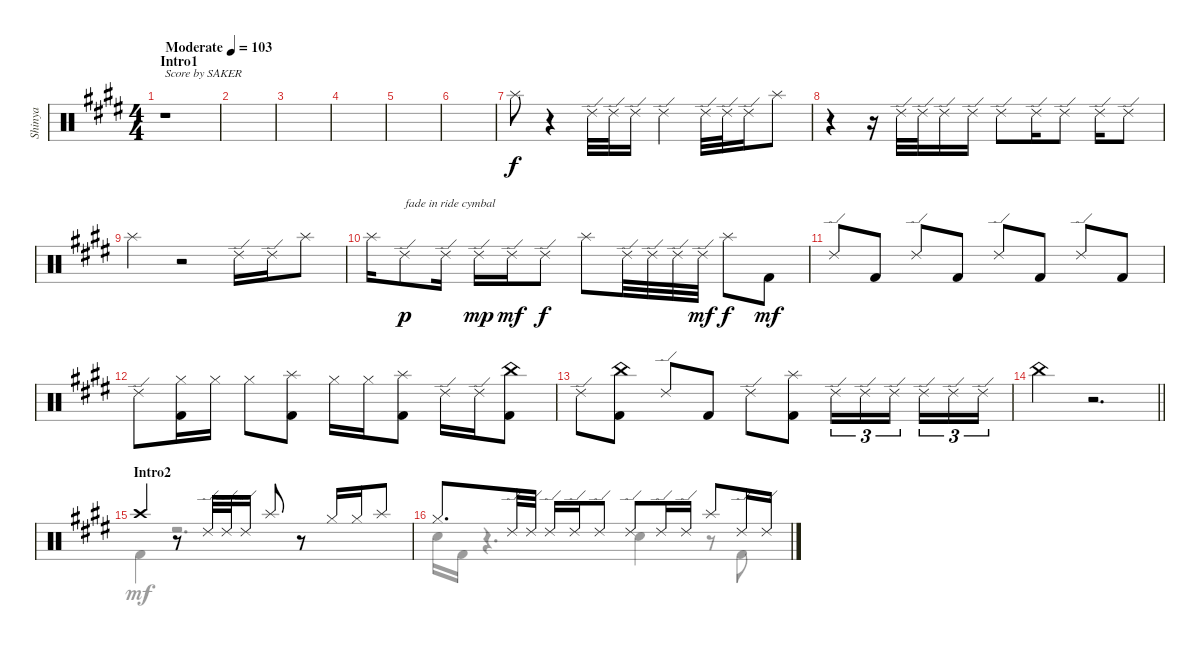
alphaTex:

\track ("Shinya" "Shinya") {instrument percussion}
\staff {score}
\articulation defaults
\voice
\ts (4 4)
\section ("" "Intro1")
\tempo (103 "Moderate")
\clef neutral
\ks c#minor
r.1{txt "Score by SAKER" dy f} |
|
|
|
|
|
"Splash (hit)".8 r.4 "Ride (edge) 2".32 "Ride (edge) 2".32 "Ride (edge) 2".16 "Ride (edge) 2".4 "Ride (edge) 2".32 "Ride (edge) 2".32 "Ride (edge) 2".16 "Splash (hit)".8 |
r.4 r.16 "Ride (edge) 2".32 "Ride (edge) 2".32 "Ride (edge) 2".16 "Ride (edge) 2".16 "Ride (edge) 2".8 "Ride (edge) 2".16 "Ride (edge) 2".8 "Ride (edge) 2".16 "Ride (edge) 2".8 |
"Splash (hit)".4 r.2 "Ride (edge) 2".16 "Ride (edge) 2".16 "Splash (hit)".8 |
"Splash (hit)".16 "Ride (edge) 2".8{txt "fade in ride cymbal" dy p} "Ride (edge) 2".16 "Ride (edge) 2".16{dy mp} "Ride (edge) 2".16{dy mf} "Ride (edge) 2".8{dy f} "Splash (hit)".8 "Ride (edge) 2".32 "Ride (edge) 2".32 "Ride (edge) 2".32 "Ride (edge) 2".32{dy mf} "Splash (hit)".8{dy f} "Kick (hit) 2".8{dy mf} |
"Ride (edge) 2".8 "Kick (hit) 2".8 "Ride (edge) 2".8 "Kick (hit) 2".8 "Ride (edge) 2".8 "Kick (hit) 2".8 "Ride (edge) 2".8 "Kick (hit) 2".8 |
"Ride (edge) 2".8 ("Hi-Hat (closed)" "Kick (hit) 2").16 "Hi-Hat (closed)".16 "Hi-Hat (closed)".8 ("Splash (hit)" "Kick (hit) 2").8 "Hi-Hat (closed)".16 "Hi-Hat (closed)".16 ("Splash (hit)" "Kick (hit) 2").8 "Ride (edge) 2".16 "Ride (edge) 2".16 ("China (hit)" "Kick (hit) 2").8 |
"Ride (edge) 2".8 ("China (hit)" "Kick (hit) 2").8 "Ride (edge) 2".8 "Kick (hit) 2".8 "Ride (edge) 2".8 ("Splash (hit)" "Kick (hit) 2").8 "Ride (edge) 2".16{tu (3 2)} "Ride (edge) 2".16{tu (3 2)} "Ride (edge) 2".16{tu (3 2) beam splitsecondary} "Ride (edge) 2".16{tu (3 2)} "Ride (edge) 2".16{tu (3 2)} "Ride (edge) 2".16{tu (3 2)} |
\barLineRight lightlight "China (hit)".4
r.2{d} |
\section ("" "Intro2")
"Crash high (hit)".4 r.8 "Ride (edge) 2".32 "Ride (edge) 2".32 "Ride (edge) 2".16 "Splash (hit)".8 r.8 "Hi-Hat (closed)".16 "Hi-Hat (closed)".16 "Splash (hit)".8 |
"Hi-Hat (closed)".8{d} "Ride (edge) 2".32 "Ride (edge) 2".32 "Ride (edge) 2".16 "Ride (edge) 2".16 "Ride (edge) 2".8 "Ride (edge) 2".8 "Ride (edge) 2".16 "Ride (edge) 2".16 "Splash (hit)".8 "Ride (edge) 2".16 "Ride (edge) 2".16
\voice
\clef neutral
\ottava regular
\simile none
\ks c#minor
|
|
|
|
|
|
|
|
|
|
|
|
|
\barLineRight lightlight
|
"Kick (hit) 2".4 r.2{d} |
"Snare (hit) 2".16 "Kick (hit) 2".16 r.4{d} "Snare (hit) 2".4 r.8 "Kick (hit) 2".8
